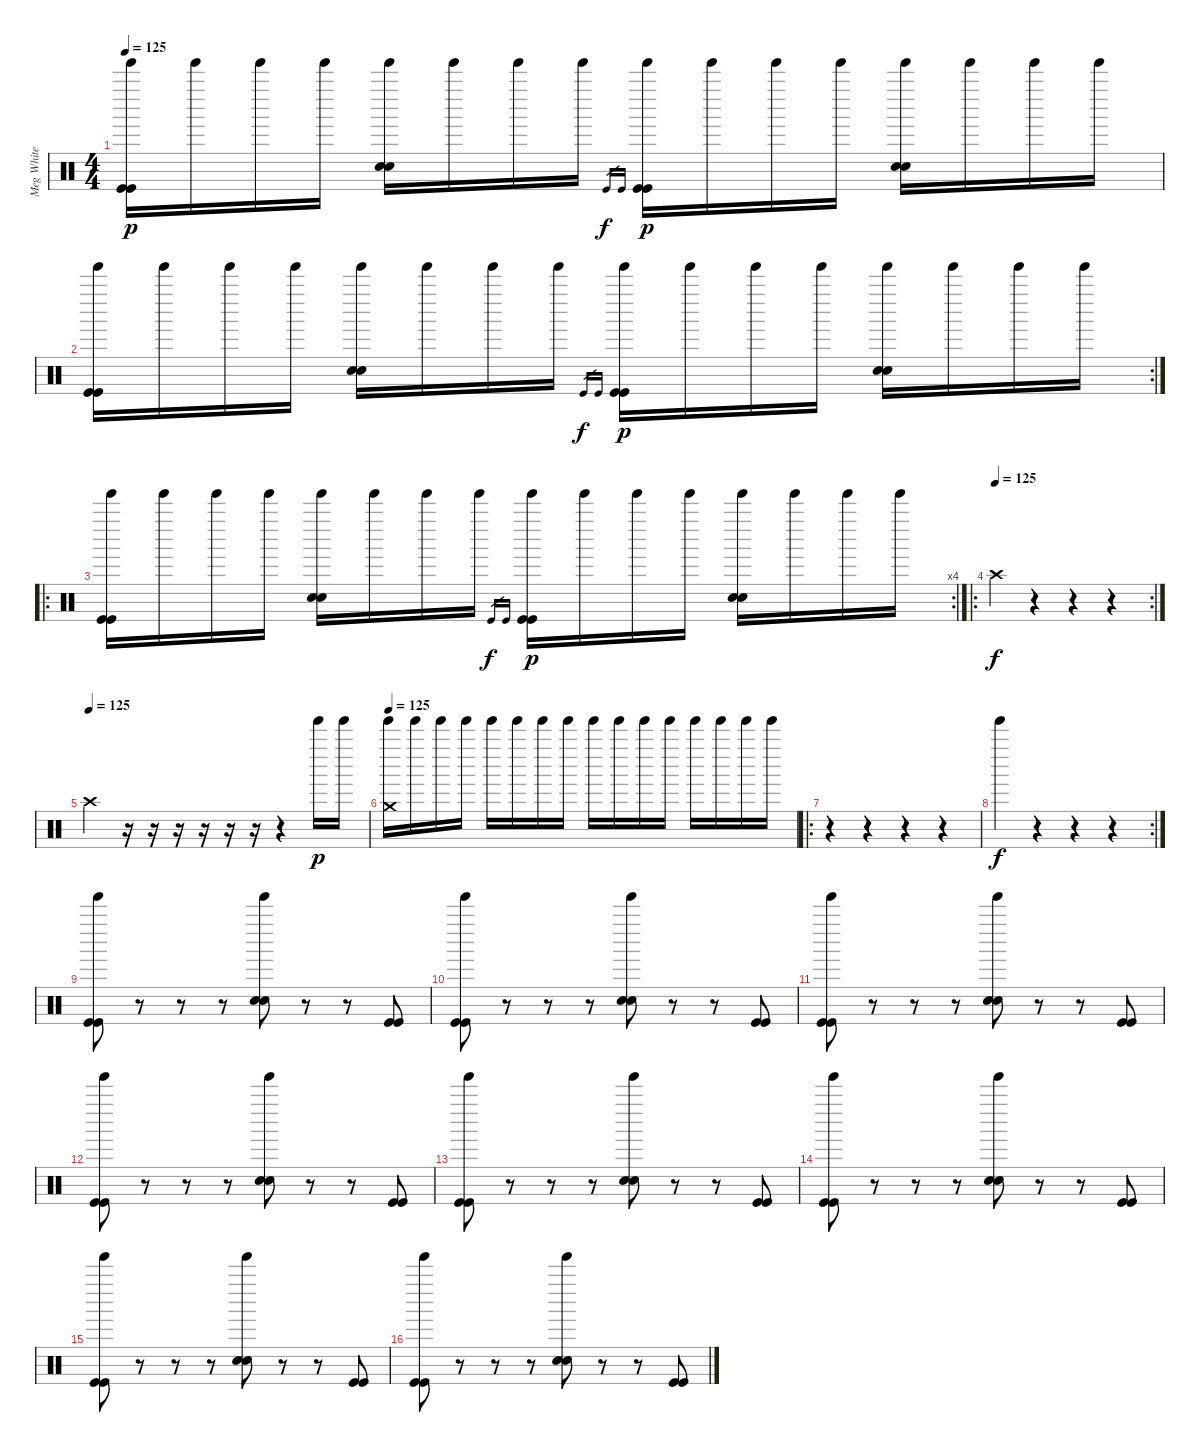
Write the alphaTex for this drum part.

\track ("Meg White" "Meg White") {instrument percussion}
\staff {score}
\articulation defaults
\ts (4 4)
\tempo 125
\clef neutral
\ks c
("Tinkle Bell (hit)" "Kick (hit)" "Kick (hit)").16{dy p} "Tinkle Bell (hit)".16 "Tinkle Bell (hit)".16 "Tinkle Bell (hit)".16 ("Tinkle Bell (hit)" "Snare (hit) 2" "Snare (hit) 2").16 "Tinkle Bell (hit)".16 "Tinkle Bell (hit)".16 "Tinkle Bell (hit)".16 "Kick (hit)".16{gr dy f} "Kick (hit)".16{gr} ("Tinkle Bell (hit)" "Kick (hit)" "Kick (hit)").16{dy p} "Tinkle Bell (hit)".16 "Tinkle Bell (hit)".16 "Tinkle Bell (hit)".16 ("Tinkle Bell (hit)" "Snare (hit) 2" "Snare (hit) 2").16 "Tinkle Bell (hit)".16 "Tinkle Bell (hit)".16 "Tinkle Bell (hit)".16 |
\rc 2
("Tinkle Bell (hit)" "Kick (hit)" "Kick (hit)").16 "Tinkle Bell (hit)".16 "Tinkle Bell (hit)".16 "Tinkle Bell (hit)".16 ("Tinkle Bell (hit)" "Snare (hit) 2" "Snare (hit) 2").16 "Tinkle Bell (hit)".16 "Tinkle Bell (hit)".16 "Tinkle Bell (hit)".16 "Kick (hit)".16{gr dy f} "Kick (hit)".16{gr} ("Tinkle Bell (hit)" "Kick (hit)" "Kick (hit)").16{dy p} "Tinkle Bell (hit)".16 "Tinkle Bell (hit)".16 "Tinkle Bell (hit)".16 ("Tinkle Bell (hit)" "Snare (hit) 2" "Snare (hit) 2").16 "Tinkle Bell (hit)".16 "Tinkle Bell (hit)".16 "Tinkle Bell (hit)".16 |
\ro
\rc 4
("Tinkle Bell (hit)" "Kick (hit)" "Kick (hit)").16 "Tinkle Bell (hit)".16 "Tinkle Bell (hit)".16 "Tinkle Bell (hit)".16 ("Tinkle Bell (hit)" "Snare (hit) 2" "Snare (hit) 2").16 "Tinkle Bell (hit)".16 "Tinkle Bell (hit)".16 "Tinkle Bell (hit)".16 "Kick (hit)".16{gr dy f} "Kick (hit)".16{gr} ("Tinkle Bell (hit)" "Kick (hit)" "Kick (hit)").16{dy p} "Tinkle Bell (hit)".16 "Tinkle Bell (hit)".16 "Tinkle Bell (hit)".16 ("Tinkle Bell (hit)" "Snare (hit) 2" "Snare (hit) 2").16 "Tinkle Bell (hit)".16 "Tinkle Bell (hit)".16 "Tinkle Bell (hit)".16 |
\ro
\rc 2
\tempo (125)
"Crash high (hit)".4{dy f} r.4 r.4 r.4 |
\tempo (125)
"Crash high (hit)".4 r.16 r.16 r.16 r.16 r.16 r.16 r.4 "Tinkle Bell (hit)".16{dy p} "Tinkle Bell (hit)".16 |
\tempo 125
("Tinkle Bell (hit)" "Crash medium (hit)").16 "Tinkle Bell (hit)".16 "Tinkle Bell (hit)".16 "Tinkle Bell (hit)".16 "Tinkle Bell (hit)".16 "Tinkle Bell (hit)".16 "Tinkle Bell (hit)".16 "Tinkle Bell (hit)".16 "Tinkle Bell (hit)".16 "Tinkle Bell (hit)".16 "Tinkle Bell (hit)".16 "Tinkle Bell (hit)".16 "Tinkle Bell (hit)".16 "Tinkle Bell (hit)".16 "Tinkle Bell (hit)".16 "Tinkle Bell (hit)".16 |
\ro
r.4 r.4 r.4 r.4 |
\rc 2 "Tinkle Bell (hit)".4{dy f}
r.4 r.4 r.4 |
("Tinkle Bell (hit)" "Kick (hit)" "Kick (hit)").8 r.8 r.8 r.8 ("Tinkle Bell (hit)" "Snare (hit) 2" "Snare (hit) 2").8 r.8 r.8 ("Kick (hit)" "Kick (hit)").8 |
("Tinkle Bell (hit)" "Kick (hit)" "Kick (hit)").8 r.8 r.8 r.8 ("Tinkle Bell (hit)" "Snare (hit) 2" "Snare (hit) 2").8 r.8 r.8 ("Kick (hit)" "Kick (hit)").8 |
("Tinkle Bell (hit)" "Kick (hit)" "Kick (hit)").8 r.8 r.8 r.8 ("Tinkle Bell (hit)" "Snare (hit) 2" "Snare (hit) 2").8 r.8 r.8 ("Kick (hit)" "Kick (hit)").8 |
("Tinkle Bell (hit)" "Kick (hit)" "Kick (hit)").8 r.8 r.8 r.8 ("Tinkle Bell (hit)" "Snare (hit) 2" "Snare (hit) 2").8 r.8 r.8 ("Kick (hit)" "Kick (hit)").8 |
("Tinkle Bell (hit)" "Kick (hit)" "Kick (hit)").8 r.8 r.8 r.8 ("Tinkle Bell (hit)" "Snare (hit) 2" "Snare (hit) 2").8 r.8 r.8 ("Kick (hit)" "Kick (hit)").8 |
("Tinkle Bell (hit)" "Kick (hit)" "Kick (hit)").8 r.8 r.8 r.8 ("Tinkle Bell (hit)" "Snare (hit) 2" "Snare (hit) 2").8 r.8 r.8 ("Kick (hit)" "Kick (hit)").8 |
("Tinkle Bell (hit)" "Kick (hit)" "Kick (hit)").8 r.8 r.8 r.8 ("Tinkle Bell (hit)" "Snare (hit) 2" "Snare (hit) 2").8 r.8 r.8 ("Kick (hit)" "Kick (hit)").8 |
("Tinkle Bell (hit)" "Kick (hit)" "Kick (hit)").8 r.8 r.8 r.8 ("Tinkle Bell (hit)" "Snare (hit) 2" "Snare (hit) 2").8 r.8 r.8 ("Kick (hit)" "Kick (hit)").8
